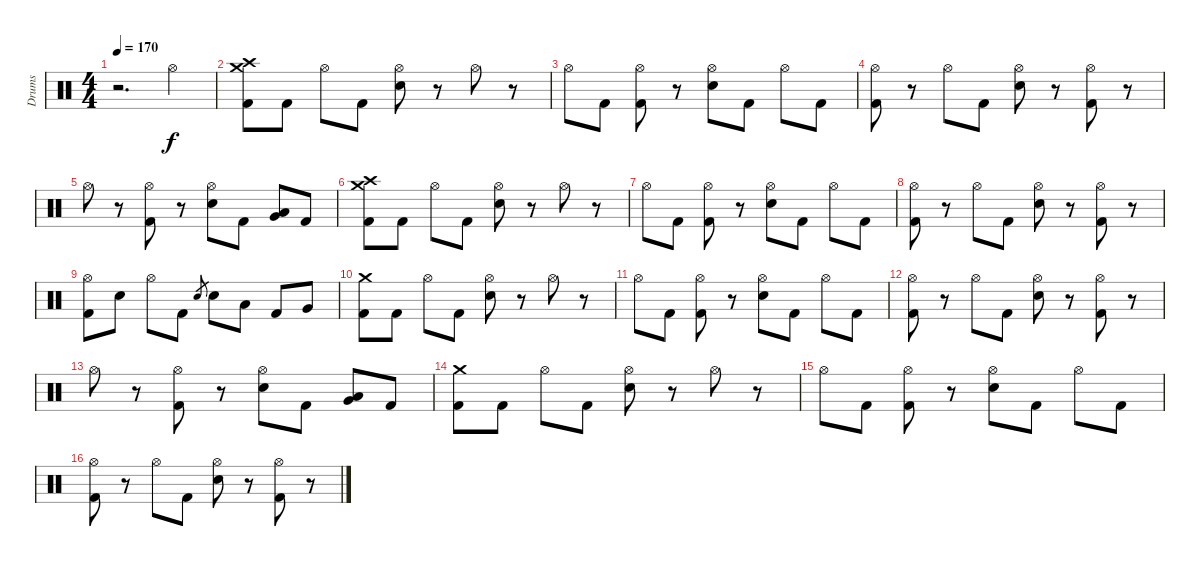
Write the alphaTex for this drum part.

\track ("Drums" "Drums") {instrument percussion}
\staff {score}
\articulation defaults
\ts (4 4)
\tempo 170
\clef neutral
\ks c
r.2{d dy f} "Hi-Hat (open)".4 |
("Crash medium (hit)" "Crash high (hit)" "Kick (hit) 2").8 "Kick (hit) 2".8 "Hi-Hat (open)".8 "Kick (hit) 2".8 ("Hi-Hat (open)" "Electric Snare (hit)").8 r.8 "Hi-Hat (open)".8 r.8 |
"Hi-Hat (open)".8 "Kick (hit) 2".8 ("Hi-Hat (open)" "Kick (hit) 2").8 r.8 ("Hi-Hat (open)" "Electric Snare (hit)").8 "Kick (hit) 2".8 "Hi-Hat (open)".8 "Kick (hit) 2".8 |
("Hi-Hat (open)" "Kick (hit) 2").8 r.8 "Hi-Hat (open)".8 "Kick (hit) 2".8 ("Hi-Hat (open)" "Electric Snare (hit)").8 r.8 ("Hi-Hat (open)" "Kick (hit) 2").8 r.8 |
"Hi-Hat (open)".8 r.8 ("Hi-Hat (open)" "Kick (hit) 2").8 r.8 ("Hi-Hat (open)" "Electric Snare (hit)").8 "Kick (hit) 2".8 ("Low Tom (hit)" "Very Low Tom (hit)").8 "Kick (hit) 2".8 |
("Crash medium (hit)" "Crash high (hit)" "Kick (hit) 2").8 "Kick (hit) 2".8 "Hi-Hat (open)".8 "Kick (hit) 2".8 ("Hi-Hat (open)" "Electric Snare (hit)").8 r.8 "Hi-Hat (open)".8 r.8 |
"Hi-Hat (open)".8 "Kick (hit) 2".8 ("Hi-Hat (open)" "Kick (hit) 2").8 r.8 ("Hi-Hat (open)" "Electric Snare (hit)").8 "Kick (hit) 2".8 "Hi-Hat (open)".8 "Kick (hit) 2".8 |
("Hi-Hat (open)" "Kick (hit) 2").8 r.8 "Hi-Hat (open)".8 "Kick (hit) 2".8 ("Hi-Hat (open)" "Electric Snare (hit)").8 r.8 ("Hi-Hat (open)" "Kick (hit) 2").8 r.8 |
("Hi-Hat (open)" "Kick (hit) 2").8 "Electric Snare (hit)".8 "Hi-Hat (open)".8 "Kick (hit) 2".8 "Electric Snare (hit)".8{gr} "Electric Snare (hit)".8 "Low Tom (hit)".8 "Kick (hit) 2".8 "Very Low Tom (hit)".8 |
("Crash medium (hit)" "Kick (hit) 2").8 "Kick (hit) 2".8 "Hi-Hat (open)".8 "Kick (hit) 2".8 ("Hi-Hat (open)" "Electric Snare (hit)").8 r.8 "Hi-Hat (open)".8 r.8 |
"Hi-Hat (open)".8 "Kick (hit) 2".8 ("Hi-Hat (open)" "Kick (hit) 2").8 r.8 ("Hi-Hat (open)" "Electric Snare (hit)").8 "Kick (hit) 2".8 "Hi-Hat (open)".8 "Kick (hit) 2".8 |
("Hi-Hat (open)" "Kick (hit) 2").8 r.8 "Hi-Hat (open)".8 "Kick (hit) 2".8 ("Hi-Hat (open)" "Electric Snare (hit)").8 r.8 ("Hi-Hat (open)" "Kick (hit) 2").8 r.8 |
"Hi-Hat (open)".8 r.8 ("Hi-Hat (open)" "Kick (hit) 2").8 r.8 ("Hi-Hat (open)" "Electric Snare (hit)").8 "Kick (hit) 2".8 ("Low Tom (hit)" "Very Low Tom (hit)").8 "Kick (hit) 2".8 |
("Crash medium (hit)" "Kick (hit) 2").8 "Kick (hit) 2".8 "Hi-Hat (open)".8 "Kick (hit) 2".8 ("Hi-Hat (open)" "Electric Snare (hit)").8 r.8 "Hi-Hat (open)".8 r.8 |
"Hi-Hat (open)".8 "Kick (hit) 2".8 ("Hi-Hat (open)" "Kick (hit) 2").8 r.8 ("Hi-Hat (open)" "Electric Snare (hit)").8 "Kick (hit) 2".8 "Hi-Hat (open)".8 "Kick (hit) 2".8 |
("Hi-Hat (open)" "Kick (hit) 2").8 r.8 "Hi-Hat (open)".8 "Kick (hit) 2".8 ("Hi-Hat (open)" "Electric Snare (hit)").8 r.8 ("Hi-Hat (open)" "Kick (hit) 2").8 r.8
